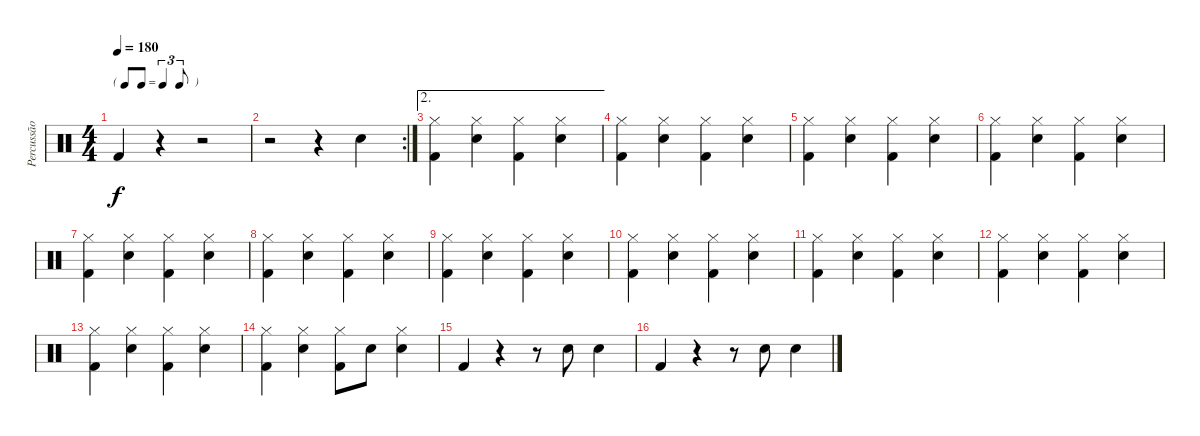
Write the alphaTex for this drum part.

\track ("Percussão" "Percussão") {instrument percussion}
\staff {score}
\articulation defaults
\ts (4 4)
\tf triplet8th
\tempo 180
\clef neutral
\ks c "Kick (hit) 2".4{dy f}
r.4 r.2 |
\rc 2
r.2 r.4 "Snare (hit) 2".4 |
\ae 2
("Hi-Hat (closed)" "Kick (hit) 2").4 ("Hi-Hat (closed)" "Snare (hit) 2").4 ("Hi-Hat (closed)" "Kick (hit) 2").4 ("Hi-Hat (closed)" "Snare (hit) 2").4 |
("Hi-Hat (closed)" "Kick (hit) 2").4 ("Hi-Hat (closed)" "Snare (hit) 2").4 ("Hi-Hat (closed)" "Kick (hit) 2").4 ("Hi-Hat (closed)" "Snare (hit) 2").4 |
("Hi-Hat (closed)" "Kick (hit) 2").4 ("Hi-Hat (closed)" "Snare (hit) 2").4 ("Hi-Hat (closed)" "Kick (hit) 2").4 ("Hi-Hat (closed)" "Snare (hit) 2").4 |
("Hi-Hat (closed)" "Kick (hit) 2").4 ("Hi-Hat (closed)" "Snare (hit) 2").4 ("Hi-Hat (closed)" "Kick (hit) 2").4 ("Hi-Hat (closed)" "Snare (hit) 2").4 |
("Hi-Hat (closed)" "Kick (hit) 2").4 ("Hi-Hat (closed)" "Snare (hit) 2").4 ("Hi-Hat (closed)" "Kick (hit) 2").4 ("Hi-Hat (closed)" "Snare (hit) 2").4 |
("Hi-Hat (closed)" "Kick (hit) 2").4 ("Hi-Hat (closed)" "Snare (hit) 2").4 ("Hi-Hat (closed)" "Kick (hit) 2").4 ("Hi-Hat (closed)" "Snare (hit) 2").4 |
("Hi-Hat (closed)" "Kick (hit) 2").4 ("Hi-Hat (closed)" "Snare (hit) 2").4 ("Hi-Hat (closed)" "Kick (hit) 2").4 ("Hi-Hat (closed)" "Snare (hit) 2").4 |
("Hi-Hat (closed)" "Kick (hit) 2").4 ("Hi-Hat (closed)" "Snare (hit) 2").4 ("Hi-Hat (closed)" "Kick (hit) 2").4 ("Hi-Hat (closed)" "Snare (hit) 2").4 |
("Hi-Hat (closed)" "Kick (hit) 2").4 ("Hi-Hat (closed)" "Snare (hit) 2").4 ("Hi-Hat (closed)" "Kick (hit) 2").4 ("Hi-Hat (closed)" "Snare (hit) 2").4 |
("Hi-Hat (closed)" "Kick (hit) 2").4 ("Hi-Hat (closed)" "Snare (hit) 2").4 ("Hi-Hat (closed)" "Kick (hit) 2").4 ("Hi-Hat (closed)" "Snare (hit) 2").4 |
("Hi-Hat (closed)" "Kick (hit) 2").4 ("Hi-Hat (closed)" "Snare (hit) 2").4 ("Hi-Hat (closed)" "Kick (hit) 2").4 ("Hi-Hat (closed)" "Snare (hit) 2").4 |
("Hi-Hat (closed)" "Kick (hit) 2").4 ("Hi-Hat (closed)" "Snare (hit) 2").4 ("Hi-Hat (closed)" "Kick (hit) 2").8 "Snare (hit) 2".8 ("Hi-Hat (closed)" "Snare (hit) 2").4 |
"Kick (hit) 2".4 r.4 r.8 "Snare (hit) 2".8 "Snare (hit) 2".4 |
"Kick (hit) 2".4 r.4 r.8 "Snare (hit) 2".8 "Snare (hit) 2".4
